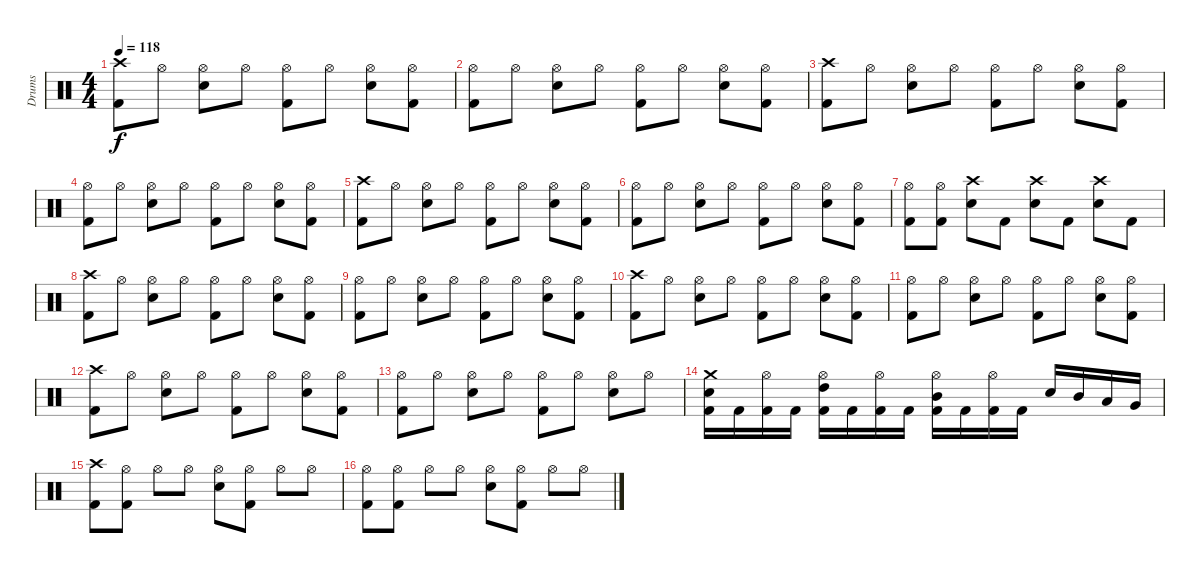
\track ("Drums" "Drums") {instrument percussion}
\staff {score}
\articulation defaults
\ts (4 4)
\tempo 118
\clef neutral
\ks c
("Crash high (hit)" "Kick (hit) 2").8{dy f} "Hi-Hat (open)".8 ("Hi-Hat (open)" "Snare (hit) 2").8 "Hi-Hat (open)".8 ("Hi-Hat (open)" "Kick (hit) 2").8 "Hi-Hat (open)".8 ("Hi-Hat (open)" "Snare (hit) 2").8 ("Hi-Hat (open)" "Kick (hit) 2").8 |
("Hi-Hat (open)" "Kick (hit) 2").8 "Hi-Hat (open)".8 ("Hi-Hat (open)" "Snare (hit) 2").8 "Hi-Hat (open)".8 ("Hi-Hat (open)" "Kick (hit) 2").8 "Hi-Hat (open)".8 ("Hi-Hat (open)" "Snare (hit) 2").8 ("Hi-Hat (open)" "Kick (hit) 2").8 |
("Crash high (hit)" "Kick (hit) 2").8 "Hi-Hat (open)".8 ("Hi-Hat (open)" "Snare (hit) 2").8 "Hi-Hat (open)".8 ("Hi-Hat (open)" "Kick (hit) 2").8 "Hi-Hat (open)".8 ("Hi-Hat (open)" "Snare (hit) 2").8 ("Hi-Hat (open)" "Kick (hit) 2").8 |
("Hi-Hat (open)" "Kick (hit) 2").8 "Hi-Hat (open)".8 ("Hi-Hat (open)" "Snare (hit) 2").8 "Hi-Hat (open)".8 ("Hi-Hat (open)" "Kick (hit) 2").8 "Hi-Hat (open)".8 ("Hi-Hat (open)" "Snare (hit) 2").8 ("Hi-Hat (open)" "Kick (hit) 2").8 |
("Crash high (hit)" "Kick (hit) 2").8 "Hi-Hat (open)".8 ("Hi-Hat (open)" "Snare (hit) 2").8 "Hi-Hat (open)".8 ("Hi-Hat (open)" "Kick (hit) 2").8 "Hi-Hat (open)".8 ("Hi-Hat (open)" "Snare (hit) 2").8 ("Hi-Hat (open)" "Kick (hit) 2").8 |
("Hi-Hat (open)" "Kick (hit) 2").8 "Hi-Hat (open)".8 ("Hi-Hat (open)" "Snare (hit) 2").8 "Hi-Hat (open)".8 ("Hi-Hat (open)" "Kick (hit) 2").8 "Hi-Hat (open)".8 ("Hi-Hat (open)" "Snare (hit) 2").8 ("Hi-Hat (open)" "Kick (hit) 2").8 |
("Hi-Hat (open)" "Kick (hit) 2").8 ("Hi-Hat (open)" "Kick (hit) 2").8 ("Crash high (hit)" "Snare (hit) 2").8 "Kick (hit) 2".8 ("Crash high (hit)" "Snare (hit) 2").8 "Kick (hit) 2".8 ("Crash high (hit)" "Snare (hit) 2").8 "Kick (hit) 2".8 |
("Crash high (hit)" "Kick (hit) 2").8 "Hi-Hat (open)".8 ("Hi-Hat (open)" "Snare (hit) 2").8 "Hi-Hat (open)".8 ("Hi-Hat (open)" "Kick (hit) 2").8 "Hi-Hat (open)".8 ("Hi-Hat (open)" "Snare (hit) 2").8 ("Hi-Hat (open)" "Kick (hit) 2").8 |
("Hi-Hat (open)" "Kick (hit) 2").8 "Hi-Hat (open)".8 ("Hi-Hat (open)" "Snare (hit) 2").8 "Hi-Hat (open)".8 ("Hi-Hat (open)" "Kick (hit) 2").8 "Hi-Hat (open)".8 ("Hi-Hat (open)" "Snare (hit) 2").8 ("Hi-Hat (open)" "Kick (hit) 2").8 |
("Crash high (hit)" "Kick (hit) 2").8 "Hi-Hat (open)".8 ("Hi-Hat (open)" "Snare (hit) 2").8 "Hi-Hat (open)".8 ("Hi-Hat (open)" "Kick (hit) 2").8 "Hi-Hat (open)".8 ("Hi-Hat (open)" "Snare (hit) 2").8 ("Hi-Hat (open)" "Kick (hit) 2").8 |
("Hi-Hat (open)" "Kick (hit) 2").8 "Hi-Hat (open)".8 ("Hi-Hat (open)" "Snare (hit) 2").8 "Hi-Hat (open)".8 ("Hi-Hat (open)" "Kick (hit) 2").8 "Hi-Hat (open)".8 ("Hi-Hat (open)" "Snare (hit) 2").8 ("Hi-Hat (open)" "Kick (hit) 2").8 |
("Crash high (hit)" "Kick (hit) 2").8 "Hi-Hat (open)".8 ("Hi-Hat (open)" "Snare (hit) 2").8 "Hi-Hat (open)".8 ("Hi-Hat (open)" "Kick (hit) 2").8 "Hi-Hat (open)".8 ("Hi-Hat (open)" "Snare (hit) 2").8 ("Hi-Hat (open)" "Kick (hit) 2").8 |
("Hi-Hat (open)" "Kick (hit) 2").8 "Hi-Hat (open)".8 ("Hi-Hat (open)" "Snare (hit) 2").8 "Hi-Hat (open)".8 ("Hi-Hat (open)" "Kick (hit) 2").8 "Hi-Hat (open)".8 ("Hi-Hat (open)" "Snare (hit) 2").8 "Hi-Hat (open)".8 |
("Crash medium (hit)" "Snare (hit) 2" "Kick (hit) 2").16 "Kick (hit) 2".16 ("Hi-Hat (open)" "Kick (hit) 2").16 "Kick (hit) 2".16 ("High Tom (hit)" "Hi-Hat (open)" "Kick (hit) 2").16 "Kick (hit) 2".16 ("Hi-Hat (open)" "Kick (hit) 2").16 "Kick (hit) 2".16 ("Mid Tom (hit)" "Hi-Hat (open)" "Kick (hit) 2").16 "Kick (hit) 2".16 ("Hi-Hat (open)" "Kick (hit) 2").16 "Kick (hit) 2".16 "Snare (hit) 2".16 "Mid Tom (hit)".16 "Low Tom (hit)".16 "Very Low Tom (hit)".16 |
("Crash high (hit)" "Kick (hit) 2").8 ("Hi-Hat (open)" "Kick (hit) 2").8 "Hi-Hat (open)".8 "Hi-Hat (open)".8 ("Hi-Hat (open)" "Snare (hit) 2").8 ("Hi-Hat (open)" "Kick (hit) 2").8 "Hi-Hat (open)".8 "Hi-Hat (open)".8 |
("Hi-Hat (open)" "Kick (hit) 2").8 ("Hi-Hat (open)" "Kick (hit) 2").8 "Hi-Hat (open)".8 "Hi-Hat (open)".8 ("Hi-Hat (open)" "Snare (hit) 2").8 ("Hi-Hat (open)" "Kick (hit) 2").8 "Hi-Hat (open)".8 "Hi-Hat (open)".8
